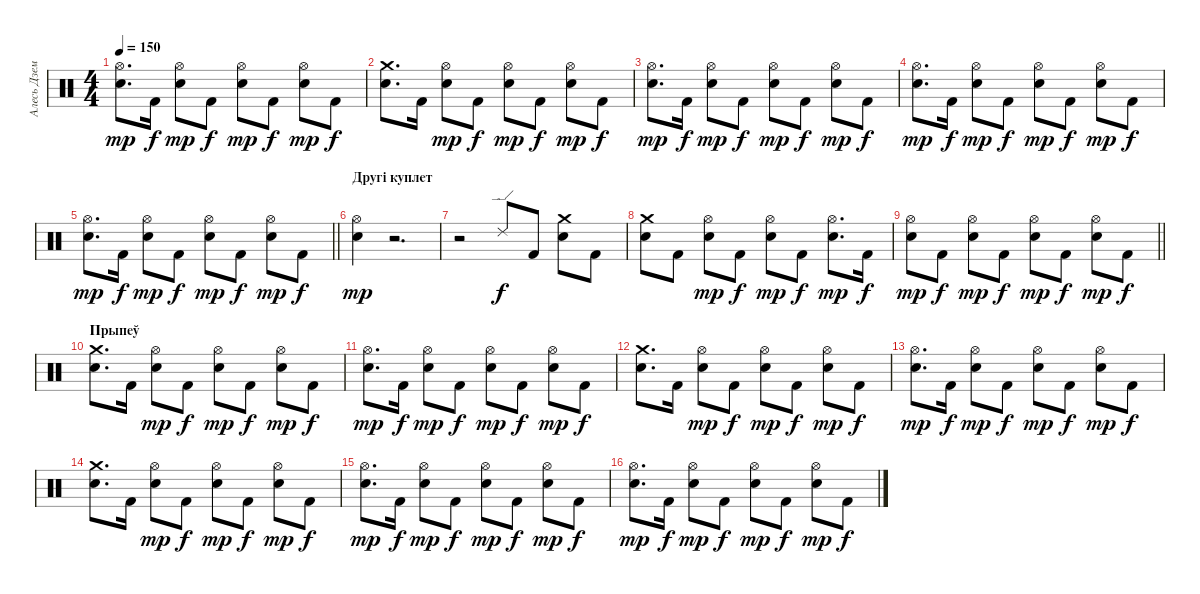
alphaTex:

\track ("Алесь Дземідовіч" "Алесь Дзем") {instrument percussion}
\staff {score}
\articulation defaults
\ts (4 4)
\tempo 150
\clef neutral
\ks c
("Hi-Hat (open)" "Electric Snare (hit)").8{d dy mp} "Kick (hit) 2".16{dy f} ("Hi-Hat (open)" "Electric Snare (hit)").8{dy mp} "Kick (hit) 2".8{dy f} ("Hi-Hat (open)" "Electric Snare (hit)").8{dy mp} "Kick (hit) 2".8{dy f} ("Hi-Hat (open)" "Electric Snare (hit)").8{dy mp} "Kick (hit) 2".8{dy f} |
("Crash medium (hit)" "Electric Snare (hit)").8{d} "Kick (hit) 2".16 ("Hi-Hat (open)" "Electric Snare (hit)").8{dy mp} "Kick (hit) 2".8{dy f} ("Hi-Hat (open)" "Electric Snare (hit)").8{dy mp} "Kick (hit) 2".8{dy f} ("Hi-Hat (open)" "Electric Snare (hit)").8{dy mp} "Kick (hit) 2".8{dy f} |
("Hi-Hat (open)" "Electric Snare (hit)").8{d dy mp} "Kick (hit) 2".16{dy f} ("Hi-Hat (open)" "Electric Snare (hit)").8{dy mp} "Kick (hit) 2".8{dy f} ("Hi-Hat (open)" "Electric Snare (hit)").8{dy mp} "Kick (hit) 2".8{dy f} ("Hi-Hat (open)" "Electric Snare (hit)").8{dy mp} "Kick (hit) 2".8{dy f} |
("Hi-Hat (open)" "Electric Snare (hit)").8{d dy mp} "Kick (hit) 2".16{dy f} ("Hi-Hat (open)" "Electric Snare (hit)").8{dy mp} "Kick (hit) 2".8{dy f} ("Hi-Hat (open)" "Electric Snare (hit)").8{dy mp} "Kick (hit) 2".8{dy f} ("Hi-Hat (open)" "Electric Snare (hit)").8{dy mp} "Kick (hit) 2".8{dy f} |
\barLineRight lightlight
("Hi-Hat (open)" "Electric Snare (hit)").8{d dy mp} "Kick (hit) 2".16{dy f} ("Hi-Hat (open)" "Electric Snare (hit)").8{dy mp} "Kick (hit) 2".8{dy f} ("Hi-Hat (open)" "Electric Snare (hit)").8{dy mp} "Kick (hit) 2".8{dy f} ("Hi-Hat (open)" "Electric Snare (hit)").8{dy mp} "Kick (hit) 2".8{dy f} |
\section ("" "Другі куплет")
("Hi-Hat (open)" "Electric Snare (hit)").4{dy mp} r.2{d} |
r.2 "Ride (edge) 2".8{dy f} "Kick (hit) 2".8 ("Crash medium (hit)" "Electric Snare (hit)").8 "Kick (hit) 2".8 |
("Crash medium (hit)" "Electric Snare (hit)").8 "Kick (hit) 2".8 ("Hi-Hat (open)" "Electric Snare (hit)").8{dy mp} "Kick (hit) 2".8{dy f} ("Hi-Hat (open)" "Electric Snare (hit)").8{dy mp} "Kick (hit) 2".8{dy f} ("Hi-Hat (open)" "Electric Snare (hit)").8{d dy mp} "Kick (hit) 2".16{dy f} |
\barLineRight lightlight
("Hi-Hat (open)" "Electric Snare (hit)").8{dy mp} "Kick (hit) 2".8{dy f} ("Hi-Hat (open)" "Electric Snare (hit)").8{dy mp} "Kick (hit) 2".8{dy f} ("Hi-Hat (open)" "Electric Snare (hit)").8{dy mp} "Kick (hit) 2".8{dy f} ("Hi-Hat (open)" "Electric Snare (hit)").8{dy mp} "Kick (hit) 2".8{dy f} |
\section ("" "Прыпеў")
("Crash medium (hit)" "Electric Snare (hit)").8{d} "Kick (hit) 2".16 ("Hi-Hat (open)" "Electric Snare (hit)").8{dy mp} "Kick (hit) 2".8{dy f} ("Hi-Hat (open)" "Electric Snare (hit)").8{dy mp} "Kick (hit) 2".8{dy f} ("Hi-Hat (open)" "Electric Snare (hit)").8{dy mp} "Kick (hit) 2".8{dy f} |
("Hi-Hat (open)" "Electric Snare (hit)").8{d dy mp} "Kick (hit) 2".16{dy f} ("Hi-Hat (open)" "Electric Snare (hit)").8{dy mp} "Kick (hit) 2".8{dy f} ("Hi-Hat (open)" "Electric Snare (hit)").8{dy mp} "Kick (hit) 2".8{dy f} ("Hi-Hat (open)" "Electric Snare (hit)").8{dy mp} "Kick (hit) 2".8{dy f} |
("Crash medium (hit)" "Electric Snare (hit)").8{d} "Kick (hit) 2".16 ("Hi-Hat (open)" "Electric Snare (hit)").8{dy mp} "Kick (hit) 2".8{dy f} ("Hi-Hat (open)" "Electric Snare (hit)").8{dy mp} "Kick (hit) 2".8{dy f} ("Hi-Hat (open)" "Electric Snare (hit)").8{dy mp} "Kick (hit) 2".8{dy f} |
("Hi-Hat (open)" "Electric Snare (hit)").8{d dy mp} "Kick (hit) 2".16{dy f} ("Hi-Hat (open)" "Electric Snare (hit)").8{dy mp} "Kick (hit) 2".8{dy f} ("Hi-Hat (open)" "Electric Snare (hit)").8{dy mp} "Kick (hit) 2".8{dy f} ("Hi-Hat (open)" "Electric Snare (hit)").8{dy mp} "Kick (hit) 2".8{dy f} |
("Crash medium (hit)" "Electric Snare (hit)").8{d} "Kick (hit) 2".16 ("Hi-Hat (open)" "Electric Snare (hit)").8{dy mp} "Kick (hit) 2".8{dy f} ("Hi-Hat (open)" "Electric Snare (hit)").8{dy mp} "Kick (hit) 2".8{dy f} ("Hi-Hat (open)" "Electric Snare (hit)").8{dy mp} "Kick (hit) 2".8{dy f} |
("Hi-Hat (open)" "Electric Snare (hit)").8{d dy mp} "Kick (hit) 2".16{dy f} ("Hi-Hat (open)" "Electric Snare (hit)").8{dy mp} "Kick (hit) 2".8{dy f} ("Hi-Hat (open)" "Electric Snare (hit)").8{dy mp} "Kick (hit) 2".8{dy f} ("Hi-Hat (open)" "Electric Snare (hit)").8{dy mp} "Kick (hit) 2".8{dy f} |
("Hi-Hat (open)" "Electric Snare (hit)").8{d dy mp} "Kick (hit) 2".16{dy f} ("Hi-Hat (open)" "Electric Snare (hit)").8{dy mp} "Kick (hit) 2".8{dy f} ("Hi-Hat (open)" "Electric Snare (hit)").8{dy mp} "Kick (hit) 2".8{dy f} ("Hi-Hat (open)" "Electric Snare (hit)").8{dy mp} "Kick (hit) 2".8{dy f}
